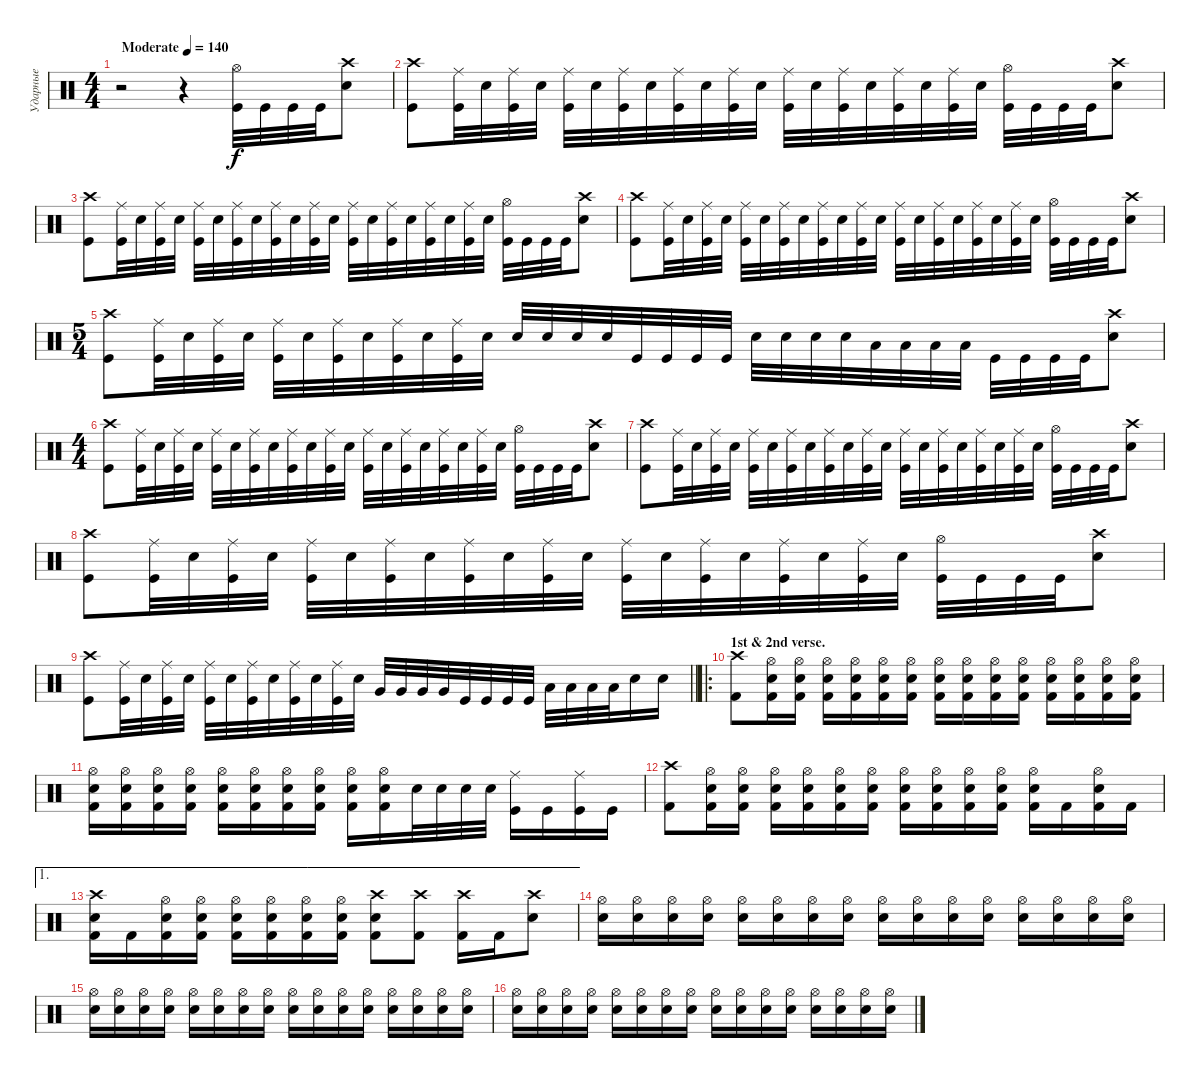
\track ("Ударные" "Ударные") {instrument percussion}
\staff {score}
\articulation defaults
\ts (4 4)
\tempo (140 "Moderate")
\clef neutral
\ks c
r.2{dy f} r.4 ("Kick (hit)" "Hi-Hat (open)").32 "Kick (hit)".32 "Kick (hit)".32 "Kick (hit)".32 ("Snare (hit) 2" "Crash high (hit)").8 |
("Crash high (hit)" "Kick (hit)").8 ("Ride (middle)" "Kick (hit)").32 "Snare (hit) 2".32 ("Ride (middle)" "Kick (hit)").32 "Snare (hit) 2".32 ("Ride (middle)" "Kick (hit)").32 "Snare (hit) 2".32 ("Ride (middle)" "Kick (hit)").32 "Snare (hit) 2".32 ("Ride (middle)" "Kick (hit)").32 "Snare (hit) 2".32 ("Ride (middle)" "Kick (hit)").32 "Snare (hit) 2".32 ("Ride (middle)" "Kick (hit)").32 "Snare (hit) 2".32 ("Ride (middle)" "Kick (hit)").32 "Snare (hit) 2".32 ("Ride (middle)" "Kick (hit)").32 "Snare (hit) 2".32 ("Ride (middle)" "Kick (hit)").32 "Snare (hit) 2".32 ("Kick (hit)" "Hi-Hat (open)").32 "Kick (hit)".32 "Kick (hit)".32 "Kick (hit)".32 ("Snare (hit) 2" "Crash high (hit)").8 |
("Crash high (hit)" "Kick (hit)").8 ("Ride (middle)" "Kick (hit)").32 "Snare (hit) 2".32 ("Ride (middle)" "Kick (hit)").32 "Snare (hit) 2".32 ("Ride (middle)" "Kick (hit)").32 "Snare (hit) 2".32 ("Ride (middle)" "Kick (hit)").32 "Snare (hit) 2".32 ("Ride (middle)" "Kick (hit)").32 "Snare (hit) 2".32 ("Ride (middle)" "Kick (hit)").32 "Snare (hit) 2".32 ("Ride (middle)" "Kick (hit)").32 "Snare (hit) 2".32 ("Ride (middle)" "Kick (hit)").32 "Snare (hit) 2".32 ("Ride (middle)" "Kick (hit)").32 "Snare (hit) 2".32 ("Ride (middle)" "Kick (hit)").32 "Snare (hit) 2".32 ("Kick (hit)" "Hi-Hat (open)").32 "Kick (hit)".32 "Kick (hit)".32 "Kick (hit)".32 ("Snare (hit) 2" "Crash high (hit)").8 |
("Crash high (hit)" "Kick (hit)").8 ("Ride (middle)" "Kick (hit)").32 "Snare (hit) 2".32 ("Ride (middle)" "Kick (hit)").32 "Snare (hit) 2".32 ("Ride (middle)" "Kick (hit)").32 "Snare (hit) 2".32 ("Ride (middle)" "Kick (hit)").32 "Snare (hit) 2".32 ("Ride (middle)" "Kick (hit)").32 "Snare (hit) 2".32 ("Ride (middle)" "Kick (hit)").32 "Snare (hit) 2".32 ("Ride (middle)" "Kick (hit)").32 "Snare (hit) 2".32 ("Ride (middle)" "Kick (hit)").32 "Snare (hit) 2".32 ("Ride (middle)" "Kick (hit)").32 "Snare (hit) 2".32 ("Ride (middle)" "Kick (hit)").32 "Snare (hit) 2".32 ("Kick (hit)" "Hi-Hat (open)").32 "Kick (hit)".32 "Kick (hit)".32 "Kick (hit)".32 ("Snare (hit) 2" "Crash high (hit)").8 |
\ts (5 4)
("Crash high (hit)" "Kick (hit)").8 ("Ride (middle)" "Kick (hit)").32 "Snare (hit) 2".32 ("Ride (middle)" "Kick (hit)").32 "Snare (hit) 2".32 ("Ride (middle)" "Kick (hit)").32 "Snare (hit) 2".32 ("Ride (middle)" "Kick (hit)").32 "Snare (hit) 2".32 ("Ride (middle)" "Kick (hit)").32 "Snare (hit) 2".32 ("Ride (middle)" "Kick (hit)").32 "Snare (hit) 2".32 "Snare (hit) 2".32 "Snare (hit) 2".32 "Snare (hit) 2".32 "Snare (hit) 2".32 "Kick (hit)".32 "Kick (hit)".32 "Kick (hit)".32 "Kick (hit)".32 "Snare (hit) 2".32 "Snare (hit) 2".32 "Snare (hit) 2".32 "Snare (hit) 2".32 "Low Floor Tom (hit)".32 "Low Floor Tom (hit)".32 "Low Floor Tom (hit)".32 "Low Floor Tom (hit)".32 "Kick (hit)".32 "Kick (hit)".32 "Kick (hit)".32 "Kick (hit)".32 ("Crash high (hit)" "Snare (hit) 2").8 |
\ts (4 4)
("Crash high (hit)" "Kick (hit)").8 ("Ride (middle)" "Kick (hit)").32 "Snare (hit) 2".32 ("Ride (middle)" "Kick (hit)").32 "Snare (hit) 2".32 ("Ride (middle)" "Kick (hit)").32 "Snare (hit) 2".32 ("Ride (middle)" "Kick (hit)").32 "Snare (hit) 2".32 ("Ride (middle)" "Kick (hit)").32 "Snare (hit) 2".32 ("Ride (middle)" "Kick (hit)").32 "Snare (hit) 2".32 ("Ride (middle)" "Kick (hit)").32 "Snare (hit) 2".32 ("Ride (middle)" "Kick (hit)").32 "Snare (hit) 2".32 ("Ride (middle)" "Kick (hit)").32 "Snare (hit) 2".32 ("Ride (middle)" "Kick (hit)").32 "Snare (hit) 2".32 ("Kick (hit)" "Hi-Hat (open)").32 "Kick (hit)".32 "Kick (hit)".32 "Kick (hit)".32 ("Snare (hit) 2" "Crash high (hit)").8 |
("Crash high (hit)" "Kick (hit)").8 ("Ride (middle)" "Kick (hit)").32 "Snare (hit) 2".32 ("Ride (middle)" "Kick (hit)").32 "Snare (hit) 2".32 ("Ride (middle)" "Kick (hit)").32 "Snare (hit) 2".32 ("Ride (middle)" "Kick (hit)").32 "Snare (hit) 2".32 ("Ride (middle)" "Kick (hit)").32 "Snare (hit) 2".32 ("Ride (middle)" "Kick (hit)").32 "Snare (hit) 2".32 ("Ride (middle)" "Kick (hit)").32 "Snare (hit) 2".32 ("Ride (middle)" "Kick (hit)").32 "Snare (hit) 2".32 ("Ride (middle)" "Kick (hit)").32 "Snare (hit) 2".32 ("Ride (middle)" "Kick (hit)").32 "Snare (hit) 2".32 ("Kick (hit)" "Hi-Hat (open)").32 "Kick (hit)".32 "Kick (hit)".32 "Kick (hit)".32 ("Snare (hit) 2" "Crash high (hit)").8 |
("Crash high (hit)" "Kick (hit)").8 ("Ride (middle)" "Kick (hit)").32 "Snare (hit) 2".32 ("Ride (middle)" "Kick (hit)").32 "Snare (hit) 2".32 ("Ride (middle)" "Kick (hit)").32 "Snare (hit) 2".32 ("Ride (middle)" "Kick (hit)").32 "Snare (hit) 2".32 ("Ride (middle)" "Kick (hit)").32 "Snare (hit) 2".32 ("Ride (middle)" "Kick (hit)").32 "Snare (hit) 2".32 ("Ride (middle)" "Kick (hit)").32 "Snare (hit) 2".32 ("Ride (middle)" "Kick (hit)").32 "Snare (hit) 2".32 ("Ride (middle)" "Kick (hit)").32 "Snare (hit) 2".32 ("Ride (middle)" "Kick (hit)").32 "Snare (hit) 2".32 ("Kick (hit)" "Hi-Hat (open)").32 "Kick (hit)".32 "Kick (hit)".32 "Kick (hit)".32 ("Snare (hit) 2" "Crash high (hit)").8 |
\barLineRight lightlight
("Crash high (hit)" "Kick (hit)").8 ("Ride (middle)" "Kick (hit)").32 "Snare (hit) 2".32 ("Ride (middle)" "Kick (hit)").32 "Snare (hit) 2".32 ("Ride (middle)" "Kick (hit)").32 "Snare (hit) 2".32 ("Ride (middle)" "Kick (hit)").32 "Snare (hit) 2".32 ("Ride (middle)" "Kick (hit)").32 "Snare (hit) 2".32 ("Ride (middle)" "Kick (hit)").32 "Snare (hit) 2".32 "Very Low Tom (hit)".32 "Very Low Tom (hit)".32 "Very Low Tom (hit)".32 "Very Low Tom (hit)".32 "Kick (hit)".32 "Kick (hit)".32 "Kick (hit)".32 "Kick (hit)".32 "Low Floor Tom (hit)".32 "Low Floor Tom (hit)".32 "Low Floor Tom (hit)".32 "Low Floor Tom (hit)".32 "Snare (hit) 2".16 "Snare (hit) 2".16 |
\ro
\section ("" "1st & 2nd verse. ")
("Crash high (hit)" "Kick (hit) 2").8 ("Snare (hit) 2" "Hi-Hat (open)" "Kick (hit) 2").16 ("Snare (hit) 2" "Hi-Hat (open)" "Kick (hit) 2").16 ("Snare (hit) 2" "Hi-Hat (open)" "Kick (hit) 2").16 ("Snare (hit) 2" "Hi-Hat (open)" "Kick (hit) 2").16 ("Snare (hit) 2" "Hi-Hat (open)" "Kick (hit) 2").16 ("Snare (hit) 2" "Hi-Hat (open)" "Kick (hit) 2").16 ("Snare (hit) 2" "Hi-Hat (open)" "Kick (hit) 2").16 ("Snare (hit) 2" "Hi-Hat (open)" "Kick (hit) 2").16 ("Snare (hit) 2" "Hi-Hat (open)" "Kick (hit) 2").16 ("Snare (hit) 2" "Hi-Hat (open)" "Kick (hit) 2").16 ("Snare (hit) 2" "Hi-Hat (open)" "Kick (hit) 2").16 ("Snare (hit) 2" "Hi-Hat (open)" "Kick (hit) 2").16 ("Snare (hit) 2" "Hi-Hat (open)" "Kick (hit) 2").16 ("Snare (hit) 2" "Hi-Hat (open)" "Kick (hit) 2").16 |
("Snare (hit) 2" "Hi-Hat (open)" "Kick (hit) 2").16 ("Snare (hit) 2" "Hi-Hat (open)" "Kick (hit) 2").16 ("Snare (hit) 2" "Hi-Hat (open)" "Kick (hit) 2").16 ("Snare (hit) 2" "Hi-Hat (open)" "Kick (hit) 2").16 ("Snare (hit) 2" "Hi-Hat (open)" "Kick (hit) 2").16 ("Snare (hit) 2" "Hi-Hat (open)" "Kick (hit) 2").16 ("Snare (hit) 2" "Hi-Hat (open)" "Kick (hit) 2").16 ("Snare (hit) 2" "Hi-Hat (open)" "Kick (hit) 2").16 ("Snare (hit) 2" "Hi-Hat (open)" "Kick (hit) 2").16 ("Snare (hit) 2" "Hi-Hat (open)" "Kick (hit) 2").16 "Snare (hit) 2".32 "Snare (hit) 2".32 "Snare (hit) 2".32 "Snare (hit) 2".32 ("Ride (middle)" "Kick (hit)").16 "Kick (hit)".16 ("Ride (middle)" "Kick (hit)").16 "Kick (hit)".16 |
("Crash high (hit)" "Kick (hit) 2").8 ("Snare (hit) 2" "Hi-Hat (open)" "Kick (hit) 2").16 ("Snare (hit) 2" "Hi-Hat (open)" "Kick (hit) 2").16 ("Snare (hit) 2" "Hi-Hat (open)" "Kick (hit) 2").16 ("Snare (hit) 2" "Hi-Hat (open)" "Kick (hit) 2").16 ("Snare (hit) 2" "Hi-Hat (open)" "Kick (hit) 2").16 ("Snare (hit) 2" "Hi-Hat (open)" "Kick (hit) 2").16 ("Snare (hit) 2" "Hi-Hat (open)" "Kick (hit) 2").16 ("Snare (hit) 2" "Hi-Hat (open)" "Kick (hit) 2").16 ("Snare (hit) 2" "Hi-Hat (open)" "Kick (hit) 2").16 ("Snare (hit) 2" "Hi-Hat (open)" "Kick (hit) 2").16 ("Snare (hit) 2" "Hi-Hat (open)" "Kick (hit) 2").16 "Kick (hit) 2".16 ("Snare (hit) 2" "Hi-Hat (open)" "Kick (hit) 2").16 "Kick (hit) 2".16 |
\ae 1
("Snare (hit) 2" "Crash high (hit)" "Kick (hit) 2").16 "Kick (hit) 2".16 ("Snare (hit) 2" "Hi-Hat (open)" "Kick (hit) 2").16 ("Snare (hit) 2" "Hi-Hat (open)" "Kick (hit) 2").16 ("Snare (hit) 2" "Hi-Hat (open)" "Kick (hit) 2").16 ("Snare (hit) 2" "Hi-Hat (open)" "Kick (hit) 2").16 ("Snare (hit) 2" "Hi-Hat (open)" "Kick (hit) 2").16 ("Snare (hit) 2" "Hi-Hat (open)" "Kick (hit) 2").16 ("Snare (hit) 2" "Crash high (hit)" "Kick (hit) 2").8 ("Crash high (hit)" "Kick (hit) 2").8 ("Crash high (hit)" "Kick (hit) 2").16 "Kick (hit) 2".16 ("Snare (hit) 2" "Crash high (hit)").8 |
("Snare (hit) 2" "Hi-Hat (open)").16 ("Snare (hit) 2" "Hi-Hat (open)").16 ("Snare (hit) 2" "Hi-Hat (open)").16 ("Snare (hit) 2" "Hi-Hat (open)").16 ("Snare (hit) 2" "Hi-Hat (open)").16 ("Snare (hit) 2" "Hi-Hat (open)").16 ("Snare (hit) 2" "Hi-Hat (open)").16 ("Snare (hit) 2" "Hi-Hat (open)").16 ("Snare (hit) 2" "Hi-Hat (open)").16 ("Snare (hit) 2" "Hi-Hat (open)").16 ("Snare (hit) 2" "Hi-Hat (open)").16 ("Snare (hit) 2" "Hi-Hat (open)").16 ("Snare (hit) 2" "Hi-Hat (open)").16 ("Snare (hit) 2" "Hi-Hat (open)").16 ("Snare (hit) 2" "Hi-Hat (open)").16 ("Snare (hit) 2" "Hi-Hat (open)").16 |
("Snare (hit) 2" "Hi-Hat (open)").16 ("Snare (hit) 2" "Hi-Hat (open)").16 ("Snare (hit) 2" "Hi-Hat (open)").16 ("Snare (hit) 2" "Hi-Hat (open)").16 ("Snare (hit) 2" "Hi-Hat (open)").16 ("Snare (hit) 2" "Hi-Hat (open)").16 ("Snare (hit) 2" "Hi-Hat (open)").16 ("Snare (hit) 2" "Hi-Hat (open)").16 ("Snare (hit) 2" "Hi-Hat (open)").16 ("Snare (hit) 2" "Hi-Hat (open)").16 ("Snare (hit) 2" "Hi-Hat (open)").16 ("Snare (hit) 2" "Hi-Hat (open)").16 ("Snare (hit) 2" "Hi-Hat (open)").16 ("Snare (hit) 2" "Hi-Hat (open)").16 ("Snare (hit) 2" "Hi-Hat (open)").16 ("Snare (hit) 2" "Hi-Hat (open)").16 |
("Snare (hit) 2" "Hi-Hat (open)").16 ("Snare (hit) 2" "Hi-Hat (open)").16 ("Snare (hit) 2" "Hi-Hat (open)").16 ("Snare (hit) 2" "Hi-Hat (open)").16 ("Snare (hit) 2" "Hi-Hat (open)").16 ("Snare (hit) 2" "Hi-Hat (open)").16 ("Snare (hit) 2" "Hi-Hat (open)").16 ("Snare (hit) 2" "Hi-Hat (open)").16 ("Snare (hit) 2" "Hi-Hat (open)").16 ("Snare (hit) 2" "Hi-Hat (open)").16 ("Snare (hit) 2" "Hi-Hat (open)").16 ("Snare (hit) 2" "Hi-Hat (open)").16 ("Snare (hit) 2" "Hi-Hat (open)").16 ("Snare (hit) 2" "Hi-Hat (open)").16 ("Snare (hit) 2" "Hi-Hat (open)").16 ("Snare (hit) 2" "Hi-Hat (open)").16
